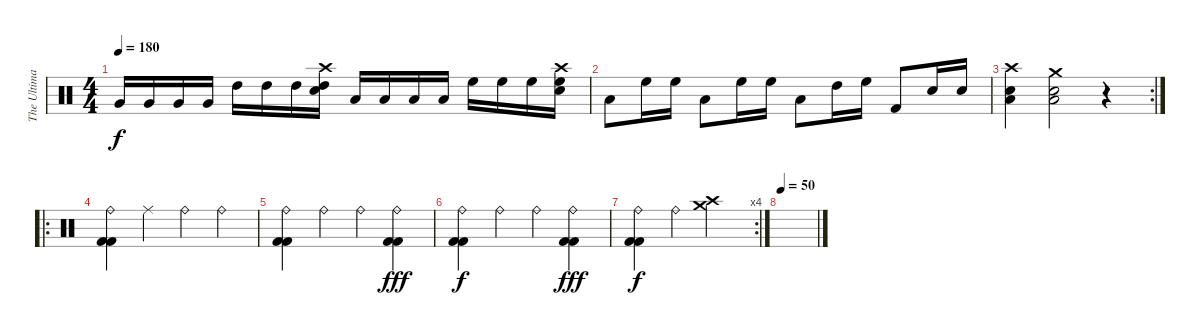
\track ("The Ultimate hero" "The Ultima") {instrument percussion}
\staff {score}
\articulation defaults
\ts (4 4)
\tempo 180
\clef neutral
\ks c "Very Low Tom (hit)".16{dy f} "Very Low Tom (hit)".16 "Very Low Tom (hit)".16 "Very Low Tom (hit)".16 "High Tom (hit)".16 "High Tom (hit)".16 "High Tom (hit)".16
("High Tom (hit)" "Snare (hit) 2" "Crash high (hit)").16 "Low Floor Tom (hit)".16 "Low Floor Tom (hit)".16 "Low Floor Tom (hit)".16 "Low Floor Tom (hit)".16 "High Floor Tom (hit)".16 "High Floor Tom (hit)".16 "High Floor Tom (hit)".16 ("High Floor Tom (hit)" "Snare (hit) 2" "Crash high (hit)").16 |
"Low Tom (hit)".8 "High Floor Tom (hit)".16 "High Floor Tom (hit)".16 "Low Tom (hit)".8 "High Floor Tom (hit)".16 "High Floor Tom (hit)".16 "Low Tom (hit)".8 "High Tom (hit)".16 "High Floor Tom (hit)".16 "Kick (hit) 2".8 "Snare (hit) 2".16 "Snare (hit) 2".16 |
\rc 2
("Low Floor Tom (hit)" "Snare (hit) 2" "Crash high (hit)").4 ("Low Floor Tom (hit)" "Snare (hit) 2" "Crash medium (hit)").2 r.4 |
\ro
("Ride (bell)" "Kick (hit) 2" "Kick (hit) 2").4 "Ride (middle)".4 "Ride (bell)".4 "Ride (bell)".4 |
("Ride (bell)" "Kick (hit) 2" "Kick (hit) 2").4 "Ride (bell)".4 "Ride (bell)".4 ("Ride (bell)" "Kick (hit) 2" "Kick (hit) 2").4{dy fff} |
("Ride (bell)" "Kick (hit) 2" "Kick (hit) 2").4{dy f} "Ride (bell)".4 "Ride (bell)".4 ("Ride (bell)" "Kick (hit) 2" "Kick (hit) 2").4{dy fff} |
\rc 4
("Ride (bell)" "Kick (hit) 2" "Kick (hit) 2").4{dy f} "Ride (bell)".4 ("Crash high (hit)" "Crash medium (hit)").2 |
\tempo 15
\tempo 50
